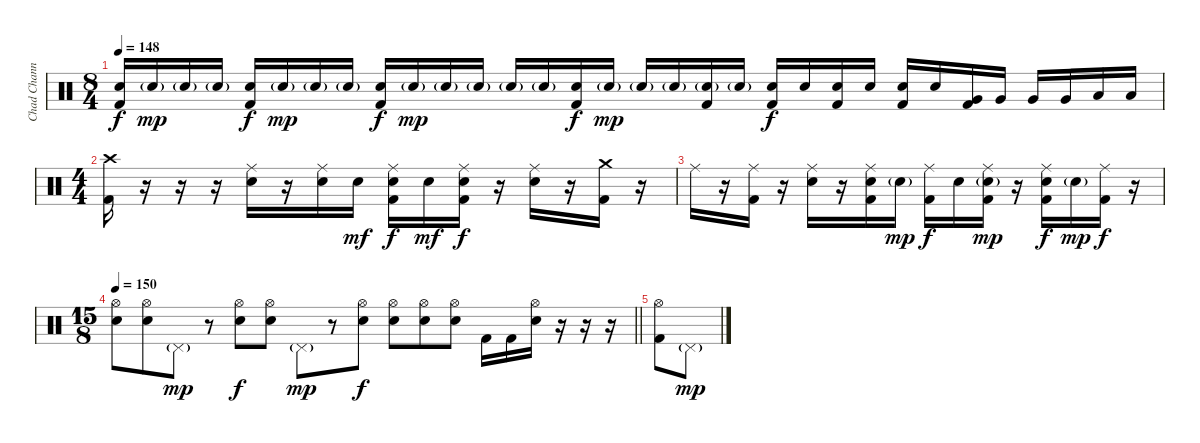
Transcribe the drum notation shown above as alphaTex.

\track ("Chad Channing" "Chad Chann") {instrument percussion}
\staff {score}
\articulation defaults
\ts (8 4)
\tempo 148
\clef neutral
\ks c
("Kick (hit) 2" "Electric Snare (hit)").16{dy f} "Electric Snare (hit)"{g}.16{dy mp} "Electric Snare (hit)"{g}.16 "Electric Snare (hit)"{g}.16 ("Kick (hit) 2" "Electric Snare (hit)").16{dy f} "Electric Snare (hit)"{g}.16{dy mp} "Electric Snare (hit)"{g}.16 "Electric Snare (hit)"{g}.16 ("Kick (hit) 2" "Electric Snare (hit)").16{dy f} "Electric Snare (hit)"{g}.16{dy mp} "Electric Snare (hit)"{g}.16 "Electric Snare (hit)"{g}.16 "Electric Snare (hit)"{g}.16 "Electric Snare (hit)"{g}.16 ("Kick (hit) 2" "Electric Snare (hit)").16{dy f} "Electric Snare (hit)"{g}.16{dy mp} "Electric Snare (hit)"{g}.16 "Electric Snare (hit)"{g}.16 ("Kick (hit) 2" "Electric Snare (hit)"{g}).16 "Electric Snare (hit)"{g}.16 ("Kick (hit) 2" "Electric Snare (hit)").16{dy f} "Electric Snare (hit)".16 ("Kick (hit) 2" "Electric Snare (hit)").16 "Electric Snare (hit)".16 ("Kick (hit) 2" "Electric Snare (hit)").16 "Electric Snare (hit)".16 ("Kick (hit) 2" "Very Low Tom (hit)").16 "Very Low Tom (hit)".16 "Very Low Tom (hit)".16 "Very Low Tom (hit)".16 "Low Floor Tom (hit)".16 "Low Floor Tom (hit)".16 |
\ts (4 4)
("Crash high (hit)" "Kick (hit) 2").16 r.16 r.16 r.16 ("Electric Snare (hit)" "Ride (middle)").16 r.16 ("Electric Snare (hit)" "Ride (middle)").16 "Electric Snare (hit)".16{dy mf} ("Electric Snare (hit)" "Ride (middle)" "Kick (hit) 2").16{dy f} "Electric Snare (hit)".16{dy mf} ("Electric Snare (hit)" "Ride (middle)" "Kick (hit) 2").16{dy f} r.16 ("Electric Snare (hit)" "Ride (middle)").16 r.16 ("Kick (hit) 2" "Crash medium (hit)").16 r.16 |
"Ride (middle)".16 r.16 ("Ride (middle)" "Kick (hit) 2").16 r.16 ("Electric Snare (hit)" "Ride (middle)").16 r.16 ("Electric Snare (hit)" "Ride (middle)" "Kick (hit) 2").16 "Electric Snare (hit)"{g}.16{dy mp} ("Ride (middle)" "Kick (hit) 2").16{dy f} "Electric Snare (hit)".16 ("Electric Snare (hit)"{g} "Ride (middle)" "Kick (hit) 2").16{dy mp} r.16 ("Electric Snare (hit)" "Ride (middle)" "Kick (hit) 2").16{dy f} "Electric Snare (hit)"{g}.16{dy mp} ("Ride (middle)" "Kick (hit) 2").16{dy f} r.16 |
\ts (15 8)
\tempo 150
\barLineRight lightlight
("Electric Snare (hit)" "Hi-Hat (open)").8 ("Electric Snare (hit)" "Hi-Hat (open)").8 "Pedal Hi-Hat (hit)"{g}.8{dy mp} r.8 ("Electric Snare (hit)" "Hi-Hat (open)").8{dy f} ("Electric Snare (hit)" "Hi-Hat (open)").8 "Pedal Hi-Hat (hit)"{g}.8{dy mp} r.8 ("Electric Snare (hit)" "Hi-Hat (open)").8{dy f} ("Electric Snare (hit)" "Hi-Hat (open)").8 ("Electric Snare (hit)" "Hi-Hat (open)").8 ("Electric Snare (hit)" "Hi-Hat (open)").8 "Kick (hit) 2".16 "Kick (hit) 2".16 ("Electric Snare (hit)" "Hi-Hat (open)").16 r.16 r.16 r.16 |
("Kick (hit) 2" "Hi-Hat (open)").8 "Pedal Hi-Hat (hit)"{g}.8{dy mp}
